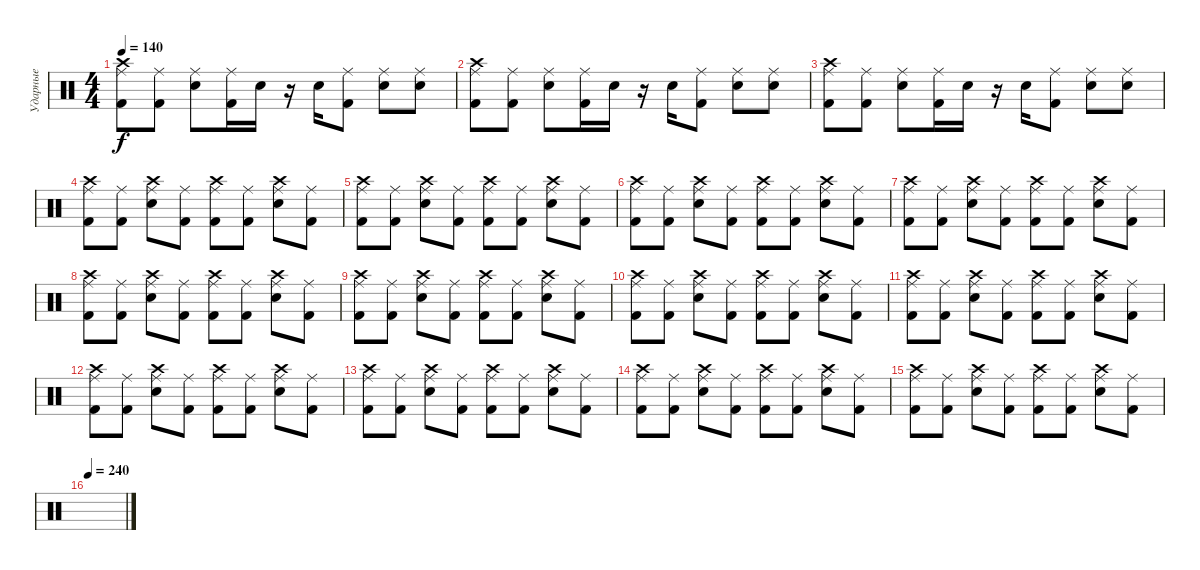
\track ("Ударные" "Ударные") {instrument percussion}
\staff {score}
\articulation defaults
\ts (4 4)
\tempo 140
\clef neutral
\ks c
("Kick (hit) 2" "Crash high (hit)" "Ride (middle)").8{dy f} ("Kick (hit) 2" "Ride (middle)").8 ("Electric Snare (hit)" "Ride (middle)").8 ("Kick (hit) 2" "Ride (middle)").16 "Electric Snare (hit)".16 r.16 "Electric Snare (hit)".16 ("Kick (hit) 2" "Ride (middle)").8 ("Electric Snare (hit)" "Ride (middle)").8 ("Electric Snare (hit)" "Ride (middle)").8 |
("Kick (hit) 2" "Crash high (hit)" "Ride (middle)").8 ("Kick (hit) 2" "Ride (middle)").8 ("Electric Snare (hit)" "Ride (middle)").8 ("Kick (hit) 2" "Ride (middle)").16 "Electric Snare (hit)".16 r.16 "Electric Snare (hit)".16 ("Kick (hit) 2" "Ride (middle)").8 ("Electric Snare (hit)" "Ride (middle)").8 ("Electric Snare (hit)" "Ride (middle)").8 |
("Kick (hit) 2" "Crash high (hit)" "Ride (middle)").8 ("Kick (hit) 2" "Ride (middle)").8 ("Electric Snare (hit)" "Ride (middle)").8 ("Kick (hit) 2" "Ride (middle)").16 "Electric Snare (hit)".16 r.16 "Electric Snare (hit)".16 ("Kick (hit) 2" "Ride (middle)").8 ("Electric Snare (hit)" "Ride (middle)").8 ("Electric Snare (hit)" "Ride (middle)").8 |
("Kick (hit) 2" "Ride (middle)" "Crash high (hit)").8 ("Kick (hit) 2" "Ride (middle)").8 ("Electric Snare (hit)" "Ride (middle)" "Crash high (hit)").8 ("Kick (hit) 2" "Ride (middle)").8 ("Kick (hit) 2" "Ride (middle)" "Crash high (hit)").8 ("Kick (hit) 2" "Ride (middle)").8 ("Electric Snare (hit)" "Ride (middle)" "Crash high (hit)").8 ("Kick (hit) 2" "Ride (middle)").8 |
("Kick (hit) 2" "Ride (middle)" "Crash high (hit)").8 ("Kick (hit) 2" "Ride (middle)").8 ("Electric Snare (hit)" "Ride (middle)" "Crash high (hit)").8 ("Kick (hit) 2" "Ride (middle)").8 ("Kick (hit) 2" "Ride (middle)" "Crash high (hit)").8 ("Kick (hit) 2" "Ride (middle)").8 ("Electric Snare (hit)" "Ride (middle)" "Crash high (hit)").8 ("Kick (hit) 2" "Ride (middle)").8 |
("Kick (hit) 2" "Ride (middle)" "Crash high (hit)").8 ("Kick (hit) 2" "Ride (middle)").8 ("Electric Snare (hit)" "Ride (middle)" "Crash high (hit)").8 ("Kick (hit) 2" "Ride (middle)").8 ("Kick (hit) 2" "Ride (middle)" "Crash high (hit)").8 ("Kick (hit) 2" "Ride (middle)").8 ("Electric Snare (hit)" "Ride (middle)" "Crash high (hit)").8 ("Kick (hit) 2" "Ride (middle)").8 |
("Kick (hit) 2" "Ride (middle)" "Crash high (hit)").8 ("Kick (hit) 2" "Ride (middle)").8 ("Electric Snare (hit)" "Ride (middle)" "Crash high (hit)").8 ("Kick (hit) 2" "Ride (middle)").8 ("Kick (hit) 2" "Ride (middle)" "Crash high (hit)").8 ("Kick (hit) 2" "Ride (middle)").8 ("Electric Snare (hit)" "Ride (middle)" "Crash high (hit)").8 ("Kick (hit) 2" "Ride (middle)").8 |
("Kick (hit) 2" "Ride (middle)" "Crash high (hit)").8 ("Kick (hit) 2" "Ride (middle)").8 ("Electric Snare (hit)" "Ride (middle)" "Crash high (hit)").8 ("Kick (hit) 2" "Ride (middle)").8 ("Kick (hit) 2" "Ride (middle)" "Crash high (hit)").8 ("Kick (hit) 2" "Ride (middle)").8 ("Electric Snare (hit)" "Ride (middle)" "Crash high (hit)").8 ("Kick (hit) 2" "Ride (middle)").8 |
("Kick (hit) 2" "Ride (middle)" "Crash high (hit)").8 ("Kick (hit) 2" "Ride (middle)").8 ("Electric Snare (hit)" "Ride (middle)" "Crash high (hit)").8 ("Kick (hit) 2" "Ride (middle)").8 ("Kick (hit) 2" "Ride (middle)" "Crash high (hit)").8 ("Kick (hit) 2" "Ride (middle)").8 ("Electric Snare (hit)" "Ride (middle)" "Crash high (hit)").8 ("Kick (hit) 2" "Ride (middle)").8 |
("Kick (hit) 2" "Ride (middle)" "Crash high (hit)").8 ("Kick (hit) 2" "Ride (middle)").8 ("Electric Snare (hit)" "Ride (middle)" "Crash high (hit)").8 ("Kick (hit) 2" "Ride (middle)").8 ("Kick (hit) 2" "Ride (middle)" "Crash high (hit)").8 ("Kick (hit) 2" "Ride (middle)").8 ("Electric Snare (hit)" "Ride (middle)" "Crash high (hit)").8 ("Kick (hit) 2" "Ride (middle)").8 |
("Kick (hit) 2" "Ride (middle)" "Crash high (hit)").8 ("Kick (hit) 2" "Ride (middle)").8 ("Electric Snare (hit)" "Ride (middle)" "Crash high (hit)").8 ("Kick (hit) 2" "Ride (middle)").8 ("Kick (hit) 2" "Ride (middle)" "Crash high (hit)").8 ("Kick (hit) 2" "Ride (middle)").8 ("Electric Snare (hit)" "Ride (middle)" "Crash high (hit)").8 ("Kick (hit) 2" "Ride (middle)").8 |
("Kick (hit) 2" "Ride (middle)" "Crash high (hit)").8 ("Kick (hit) 2" "Ride (middle)").8 ("Electric Snare (hit)" "Ride (middle)" "Crash high (hit)").8 ("Kick (hit) 2" "Ride (middle)").8 ("Kick (hit) 2" "Ride (middle)" "Crash high (hit)").8 ("Kick (hit) 2" "Ride (middle)").8 ("Electric Snare (hit)" "Ride (middle)" "Crash high (hit)").8 ("Kick (hit) 2" "Ride (middle)").8 |
("Kick (hit) 2" "Ride (middle)" "Crash high (hit)").8 ("Kick (hit) 2" "Ride (middle)").8 ("Electric Snare (hit)" "Ride (middle)" "Crash high (hit)").8 ("Kick (hit) 2" "Ride (middle)").8 ("Kick (hit) 2" "Ride (middle)" "Crash high (hit)").8 ("Kick (hit) 2" "Ride (middle)").8 ("Electric Snare (hit)" "Ride (middle)" "Crash high (hit)").8 ("Kick (hit) 2" "Ride (middle)").8 |
("Kick (hit) 2" "Ride (middle)" "Crash high (hit)").8 ("Kick (hit) 2" "Ride (middle)").8 ("Electric Snare (hit)" "Ride (middle)" "Crash high (hit)").8 ("Kick (hit) 2" "Ride (middle)").8 ("Kick (hit) 2" "Ride (middle)" "Crash high (hit)").8 ("Kick (hit) 2" "Ride (middle)").8 ("Electric Snare (hit)" "Ride (middle)" "Crash high (hit)").8 ("Kick (hit) 2" "Ride (middle)").8 |
("Kick (hit) 2" "Ride (middle)" "Crash high (hit)").8 ("Kick (hit) 2" "Ride (middle)").8 ("Electric Snare (hit)" "Ride (middle)" "Crash high (hit)").8 ("Kick (hit) 2" "Ride (middle)").8 ("Kick (hit) 2" "Ride (middle)" "Crash high (hit)").8 ("Kick (hit) 2" "Ride (middle)").8 ("Electric Snare (hit)" "Ride (middle)" "Crash high (hit)").8 ("Kick (hit) 2" "Ride (middle)").8 |
\tempo 240
